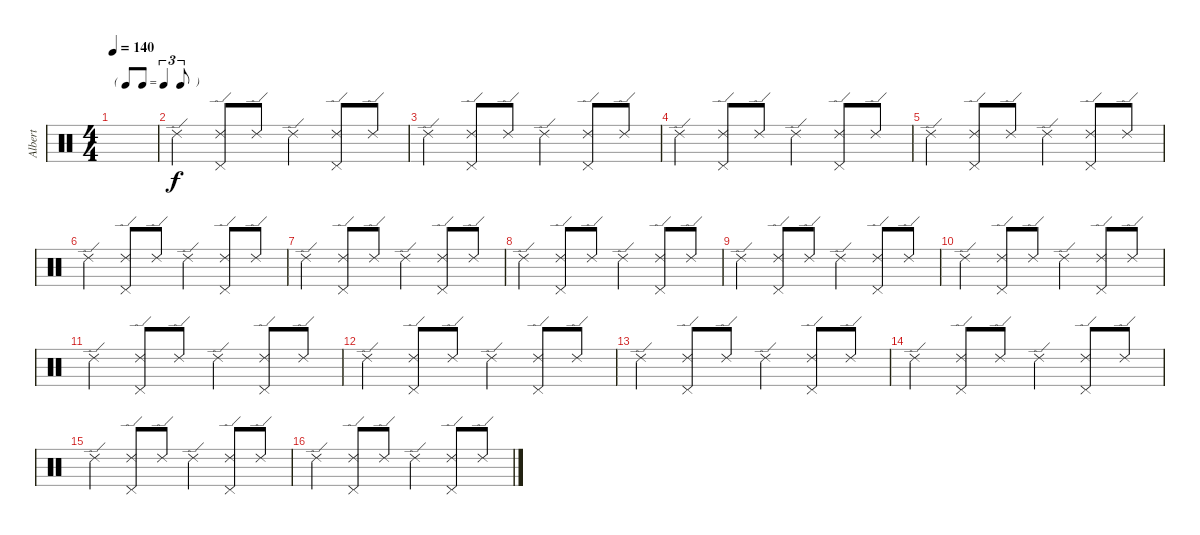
\track ("Albert" "Albert") {instrument percussion}
\staff {score}
\articulation defaults
\ts (4 4)
\tf triplet8th
\tempo 140
\clef neutral
\ks c
|
"Ride (edge) 2".4 ("Ride (edge) 2" "Pedal Hi-Hat (hit)").8 "Ride (edge) 2".8 "Ride (edge) 2".4 ("Ride (edge) 2" "Pedal Hi-Hat (hit)").8 "Ride (edge) 2".8 |
"Ride (edge) 2".4 ("Ride (edge) 2" "Pedal Hi-Hat (hit)").8 "Ride (edge) 2".8 "Ride (edge) 2".4 ("Ride (edge) 2" "Pedal Hi-Hat (hit)").8 "Ride (edge) 2".8 |
"Ride (edge) 2".4 ("Ride (edge) 2" "Pedal Hi-Hat (hit)").8 "Ride (edge) 2".8 "Ride (edge) 2".4 ("Ride (edge) 2" "Pedal Hi-Hat (hit)").8 "Ride (edge) 2".8 |
"Ride (edge) 2".4 ("Ride (edge) 2" "Pedal Hi-Hat (hit)").8 "Ride (edge) 2".8 "Ride (edge) 2".4 ("Ride (edge) 2" "Pedal Hi-Hat (hit)").8 "Ride (edge) 2".8 |
"Ride (edge) 2".4 ("Ride (edge) 2" "Pedal Hi-Hat (hit)").8 "Ride (edge) 2".8 "Ride (edge) 2".4 ("Ride (edge) 2" "Pedal Hi-Hat (hit)").8 "Ride (edge) 2".8 |
"Ride (edge) 2".4 ("Ride (edge) 2" "Pedal Hi-Hat (hit)").8 "Ride (edge) 2".8 "Ride (edge) 2".4 ("Ride (edge) 2" "Pedal Hi-Hat (hit)").8 "Ride (edge) 2".8 |
"Ride (edge) 2".4 ("Ride (edge) 2" "Pedal Hi-Hat (hit)").8 "Ride (edge) 2".8 "Ride (edge) 2".4 ("Ride (edge) 2" "Pedal Hi-Hat (hit)").8 "Ride (edge) 2".8 |
"Ride (edge) 2".4 ("Ride (edge) 2" "Pedal Hi-Hat (hit)").8 "Ride (edge) 2".8 "Ride (edge) 2".4 ("Ride (edge) 2" "Pedal Hi-Hat (hit)").8 "Ride (edge) 2".8 |
"Ride (edge) 2".4 ("Ride (edge) 2" "Pedal Hi-Hat (hit)").8 "Ride (edge) 2".8 "Ride (edge) 2".4 ("Ride (edge) 2" "Pedal Hi-Hat (hit)").8 "Ride (edge) 2".8 |
"Ride (edge) 2".4 ("Ride (edge) 2" "Pedal Hi-Hat (hit)").8 "Ride (edge) 2".8 "Ride (edge) 2".4 ("Ride (edge) 2" "Pedal Hi-Hat (hit)").8 "Ride (edge) 2".8 |
"Ride (edge) 2".4 ("Ride (edge) 2" "Pedal Hi-Hat (hit)").8 "Ride (edge) 2".8 "Ride (edge) 2".4 ("Ride (edge) 2" "Pedal Hi-Hat (hit)").8 "Ride (edge) 2".8 |
"Ride (edge) 2".4 ("Ride (edge) 2" "Pedal Hi-Hat (hit)").8 "Ride (edge) 2".8 "Ride (edge) 2".4 ("Ride (edge) 2" "Pedal Hi-Hat (hit)").8 "Ride (edge) 2".8 |
"Ride (edge) 2".4 ("Ride (edge) 2" "Pedal Hi-Hat (hit)").8 "Ride (edge) 2".8 "Ride (edge) 2".4 ("Ride (edge) 2" "Pedal Hi-Hat (hit)").8 "Ride (edge) 2".8 |
"Ride (edge) 2".4 ("Ride (edge) 2" "Pedal Hi-Hat (hit)").8 "Ride (edge) 2".8 "Ride (edge) 2".4 ("Ride (edge) 2" "Pedal Hi-Hat (hit)").8 "Ride (edge) 2".8 |
"Ride (edge) 2".4 ("Ride (edge) 2" "Pedal Hi-Hat (hit)").8 "Ride (edge) 2".8 "Ride (edge) 2".4 ("Ride (edge) 2" "Pedal Hi-Hat (hit)").8 "Ride (edge) 2".8
